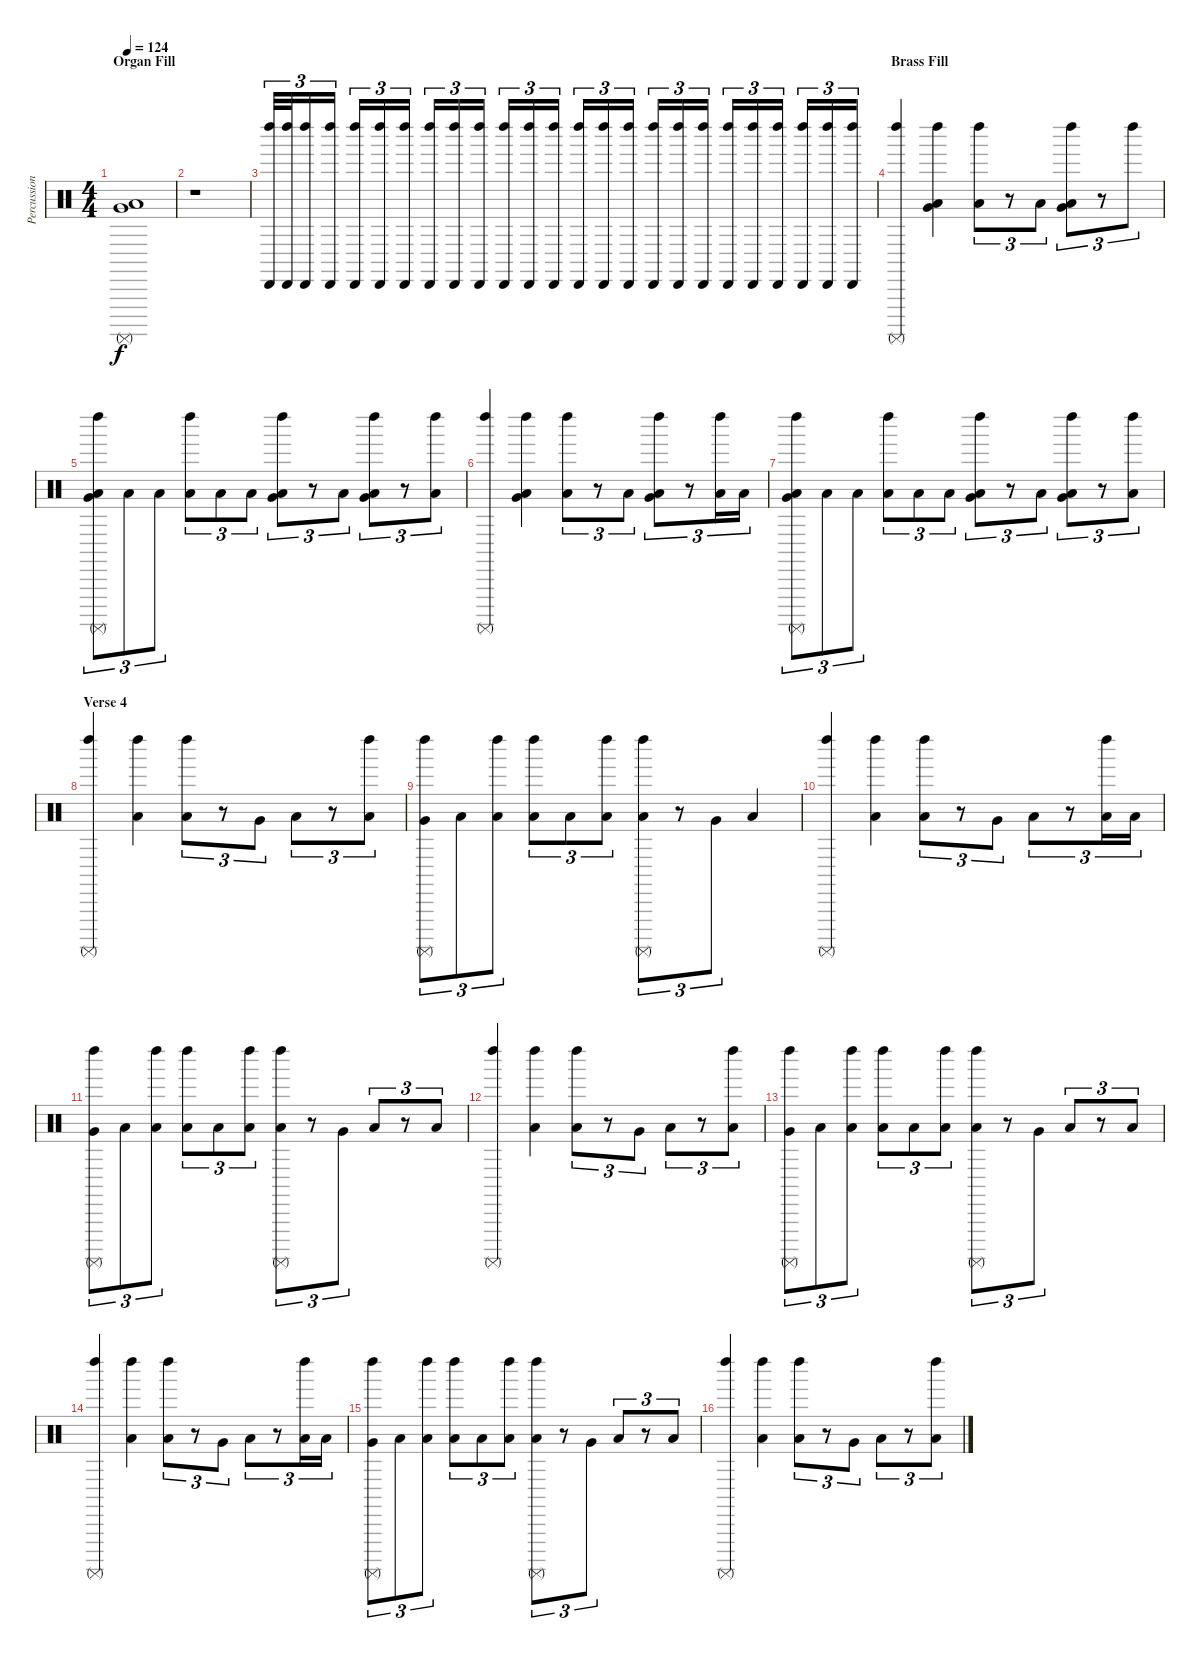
\track ("Percussion" "Percussion") {instrument percussion}
\staff {score}
\articulation defaults
\ts (4 4)
\section ("" "Organ Fill")
\tempo 124
\clef neutral
\ks c
("Very Low Tom (hit)" "Low Floor Tom (hit)" "Surdo (mute)").1{dy f} |
r.1 |
("Left Maraca (hit)" "Cabasa (hit)").32{tu (3 2) volume 6} ("Left Maraca (hit)" "Cabasa (hit)").32{tu (3 2)} ("Left Maraca (hit)" "Cabasa (hit)").16{tu (3 2)} ("Left Maraca (hit)" "Cabasa (hit)").16{tu (3 2)} ("Left Maraca (hit)" "Cabasa (hit)").16{tu (3 2) volume 4} ("Left Maraca (hit)" "Cabasa (hit)").16{tu (3 2)} ("Left Maraca (hit)" "Cabasa (hit)").16{tu (3 2)} ("Left Maraca (hit)" "Cabasa (hit)").16{tu (3 2)} ("Left Maraca (hit)" "Cabasa (hit)").16{tu (3 2)} ("Left Maraca (hit)" "Cabasa (hit)").16{tu (3 2)} ("Left Maraca (hit)" "Cabasa (hit)").16{tu (3 2)} ("Left Maraca (hit)" "Cabasa (hit)").16{tu (3 2)} ("Left Maraca (hit)" "Cabasa (hit)").16{tu (3 2)} ("Left Maraca (hit)" "Cabasa (hit)").16{tu (3 2)} ("Left Maraca (hit)" "Cabasa (hit)").16{tu (3 2)} ("Left Maraca (hit)" "Cabasa (hit)").16{tu (3 2)} ("Left Maraca (hit)" "Cabasa (hit)").16{tu (3 2)} ("Left Maraca (hit)" "Cabasa (hit)").16{tu (3 2)} ("Left Maraca (hit)" "Cabasa (hit)").16{tu (3 2)} ("Left Maraca (hit)" "Cabasa (hit)").16{tu (3 2)} ("Left Maraca (hit)" "Cabasa (hit)").16{tu (3 2)} ("Left Maraca (hit)" "Cabasa (hit)").16{tu (3 2)} ("Left Maraca (hit)" "Cabasa (hit)").16{tu (3 2)} ("Left Maraca (hit)" "Cabasa (hit)").16{tu (3 2)} ("Left Maraca (hit)" "Cabasa (hit)").16{tu (3 2)} |
\section ("" "Brass Fill")
("Left Maraca (hit)" "Surdo (mute)").4{volume 12} ("Left Maraca (hit)" "Very Low Tom (hit)" "Low Floor Tom (hit)").4 ("Left Maraca (hit)" "Low Floor Tom (hit)").8{tu (3 2)} r.8{tu (3 2)} "Low Floor Tom (hit)".8{tu (3 2)} ("Left Maraca (hit)" "Very Low Tom (hit)" "Low Floor Tom (hit)").8{tu (3 2)} r.8{tu (3 2)} "Left Maraca (hit)".8{tu (3 2)} |
("Left Maraca (hit)" "Very Low Tom (hit)" "Low Floor Tom (hit)" "Surdo (mute)").8{tu (3 2)} "Low Floor Tom (hit)".8{tu (3 2)} "Low Floor Tom (hit)".8{tu (3 2)} ("Left Maraca (hit)" "Low Floor Tom (hit)").8{tu (3 2)} "Low Floor Tom (hit)".8{tu (3 2)} "Low Floor Tom (hit)".8{tu (3 2)} ("Left Maraca (hit)" "Very Low Tom (hit)" "Low Floor Tom (hit)").8{tu (3 2)} r.8{tu (3 2)} "Low Floor Tom (hit)".8{tu (3 2)} ("Left Maraca (hit)" "Very Low Tom (hit)" "Low Floor Tom (hit)").8{tu (3 2)} r.8{tu (3 2)} ("Left Maraca (hit)" "Low Floor Tom (hit)").8{tu (3 2)} |
("Left Maraca (hit)" "Surdo (mute)").4 ("Left Maraca (hit)" "Very Low Tom (hit)" "Low Floor Tom (hit)").4 ("Left Maraca (hit)" "Low Floor Tom (hit)").8{tu (3 2)} r.8{tu (3 2)} "Low Floor Tom (hit)".8{tu (3 2)} ("Left Maraca (hit)" "Very Low Tom (hit)" "Low Floor Tom (hit)").8{tu (3 2)} r.8{tu (3 2)} ("Left Maraca (hit)" "Low Floor Tom (hit)").16{tu (3 2)} "Low Floor Tom (hit)".16{tu (3 2)} |
("Left Maraca (hit)" "Very Low Tom (hit)" "Low Floor Tom (hit)" "Surdo (mute)").8{tu (3 2)} "Low Floor Tom (hit)".8{tu (3 2)} "Low Floor Tom (hit)".8{tu (3 2)} ("Left Maraca (hit)" "Low Floor Tom (hit)").8{tu (3 2)} "Low Floor Tom (hit)".8{tu (3 2)} "Low Floor Tom (hit)".8{tu (3 2)} ("Left Maraca (hit)" "Very Low Tom (hit)" "Low Floor Tom (hit)").8{tu (3 2)} r.8{tu (3 2)} "Low Floor Tom (hit)".8{tu (3 2)} ("Left Maraca (hit)" "Very Low Tom (hit)" "Low Floor Tom (hit)").8{tu (3 2)} r.8{tu (3 2)} ("Left Maraca (hit)" "Low Floor Tom (hit)").8{tu (3 2)} |
\section ("" "Verse 4")
("Left Maraca (hit)" "Surdo (mute)").4 ("Left Maraca (hit)" "Low Floor Tom (hit)").4 ("Left Maraca (hit)" "Low Floor Tom (hit)").8{tu (3 2)} r.8{tu (3 2)} "Very Low Tom (hit)".8{tu (3 2)} "Low Floor Tom (hit)".8{tu (3 2)} r.8{tu (3 2)} ("Left Maraca (hit)" "Low Floor Tom (hit)").8{tu (3 2)} |
("Left Maraca (hit)" "Very Low Tom (hit)" "Surdo (mute)").8{tu (3 2)} "Low Floor Tom (hit)".8{tu (3 2)} ("Left Maraca (hit)" "Low Floor Tom (hit)").8{tu (3 2)} ("Left Maraca (hit)" "Low Floor Tom (hit)").8{tu (3 2)} "Low Floor Tom (hit)".8{tu (3 2)} ("Left Maraca (hit)" "Low Floor Tom (hit)").8{tu (3 2)} ("Left Maraca (hit)" "Low Floor Tom (hit)" "Surdo (mute)").8{tu (3 2)} r.8{tu (3 2)} "Very Low Tom (hit)".8{tu (3 2)} "Low Floor Tom (hit)".4 |
("Left Maraca (hit)" "Surdo (mute)").4 ("Left Maraca (hit)" "Low Floor Tom (hit)").4 ("Left Maraca (hit)" "Low Floor Tom (hit)").8{tu (3 2)} r.8{tu (3 2)} "Very Low Tom (hit)".8{tu (3 2)} "Low Floor Tom (hit)".8{tu (3 2)} r.8{tu (3 2)} ("Left Maraca (hit)" "Low Floor Tom (hit)").16{tu (3 2)} "Low Floor Tom (hit)".16{tu (3 2)} |
("Left Maraca (hit)" "Very Low Tom (hit)" "Surdo (mute)").8{tu (3 2)} "Low Floor Tom (hit)".8{tu (3 2)} ("Left Maraca (hit)" "Low Floor Tom (hit)").8{tu (3 2)} ("Left Maraca (hit)" "Low Floor Tom (hit)").8{tu (3 2)} "Low Floor Tom (hit)".8{tu (3 2)} ("Left Maraca (hit)" "Low Floor Tom (hit)").8{tu (3 2)} ("Left Maraca (hit)" "Low Floor Tom (hit)" "Surdo (mute)").8{tu (3 2)} r.8{tu (3 2)} "Very Low Tom (hit)".8{tu (3 2)} "Low Floor Tom (hit)".8{tu (3 2)} r.8{tu (3 2)} "Low Floor Tom (hit)".8{tu (3 2)} |
("Left Maraca (hit)" "Surdo (mute)").4 ("Left Maraca (hit)" "Low Floor Tom (hit)").4 ("Left Maraca (hit)" "Low Floor Tom (hit)").8{tu (3 2)} r.8{tu (3 2)} "Very Low Tom (hit)".8{tu (3 2)} "Low Floor Tom (hit)".8{tu (3 2)} r.8{tu (3 2)} ("Left Maraca (hit)" "Low Floor Tom (hit)").8{tu (3 2)} |
("Left Maraca (hit)" "Very Low Tom (hit)" "Surdo (mute)").8{tu (3 2)} "Low Floor Tom (hit)".8{tu (3 2)} ("Left Maraca (hit)" "Low Floor Tom (hit)").8{tu (3 2)} ("Left Maraca (hit)" "Low Floor Tom (hit)").8{tu (3 2)} "Low Floor Tom (hit)".8{tu (3 2)} ("Left Maraca (hit)" "Low Floor Tom (hit)").8{tu (3 2)} ("Left Maraca (hit)" "Low Floor Tom (hit)" "Surdo (mute)").8{tu (3 2)} r.8{tu (3 2)} "Very Low Tom (hit)".8{tu (3 2)} "Low Floor Tom (hit)".8{tu (3 2)} r.8{tu (3 2)} "Low Floor Tom (hit)".8{tu (3 2)} |
("Left Maraca (hit)" "Surdo (mute)").4 ("Left Maraca (hit)" "Low Floor Tom (hit)").4 ("Left Maraca (hit)" "Low Floor Tom (hit)").8{tu (3 2)} r.8{tu (3 2)} "Very Low Tom (hit)".8{tu (3 2)} "Low Floor Tom (hit)".8{tu (3 2)} r.8{tu (3 2)} ("Left Maraca (hit)" "Low Floor Tom (hit)").16{tu (3 2)} "Low Floor Tom (hit)".16{tu (3 2)} |
("Left Maraca (hit)" "Very Low Tom (hit)" "Surdo (mute)").8{tu (3 2)} "Low Floor Tom (hit)".8{tu (3 2)} ("Left Maraca (hit)" "Low Floor Tom (hit)").8{tu (3 2)} ("Left Maraca (hit)" "Low Floor Tom (hit)").8{tu (3 2)} "Low Floor Tom (hit)".8{tu (3 2)} ("Left Maraca (hit)" "Low Floor Tom (hit)").8{tu (3 2)} ("Left Maraca (hit)" "Low Floor Tom (hit)" "Surdo (mute)").8{tu (3 2)} r.8{tu (3 2)} "Very Low Tom (hit)".8{tu (3 2)} "Low Floor Tom (hit)".8{tu (3 2)} r.8{tu (3 2)} "Low Floor Tom (hit)".8{tu (3 2)} |
("Left Maraca (hit)" "Surdo (mute)").4 ("Left Maraca (hit)" "Low Floor Tom (hit)").4 ("Left Maraca (hit)" "Low Floor Tom (hit)").8{tu (3 2)} r.8{tu (3 2)} "Very Low Tom (hit)".8{tu (3 2)} "Low Floor Tom (hit)".8{tu (3 2)} r.8{tu (3 2)} ("Left Maraca (hit)" "Low Floor Tom (hit)").8{tu (3 2)}
